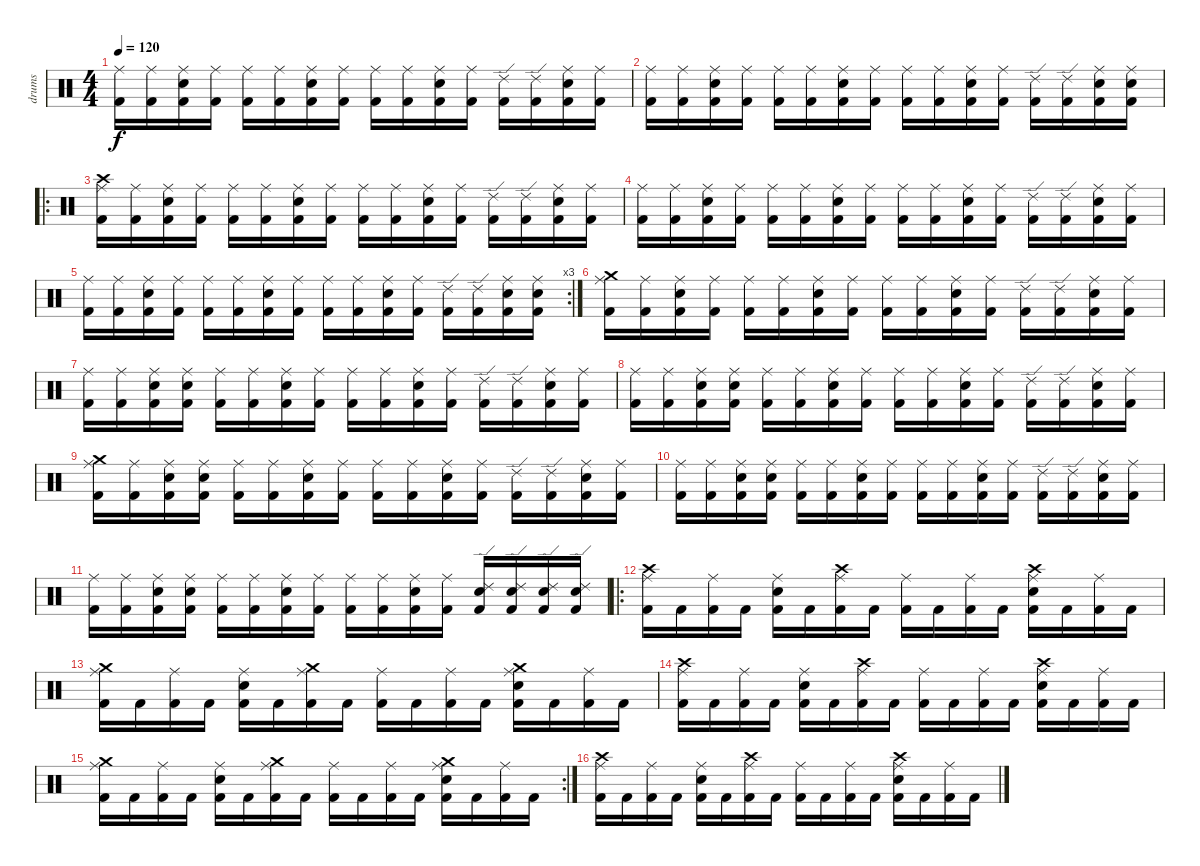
\track ("drums" "drums") {instrument percussion}
\staff {score}
\articulation defaults
\ts (4 4)
\tempo 120
\clef neutral
\ks c
("Ride (middle)" "Kick (hit) 2").16{dy f} ("Ride (middle)" "Kick (hit) 2").16 ("Ride (middle)" "Electric Snare (hit)" "Kick (hit) 2").16 ("Ride (middle)" "Kick (hit) 2").16 ("Ride (middle)" "Kick (hit) 2").16 ("Ride (middle)" "Kick (hit) 2").16 ("Ride (middle)" "Electric Snare (hit)" "Kick (hit) 2").16 ("Ride (middle)" "Kick (hit) 2").16 ("Ride (middle)" "Kick (hit) 2").16 ("Ride (middle)" "Kick (hit) 2").16 ("Ride (middle)" "Electric Snare (hit)" "Kick (hit) 2").16 ("Ride (middle)" "Kick (hit) 2").16 ("Ride (edge) 2" "Kick (hit) 2").16 ("Ride (edge) 2" "Kick (hit) 2").16 ("Ride (middle)" "Electric Snare (hit)" "Kick (hit) 2").16 ("Ride (middle)" "Kick (hit) 2").16 |
("Ride (middle)" "Kick (hit) 2").16 ("Ride (middle)" "Kick (hit) 2").16 ("Ride (middle)" "Electric Snare (hit)" "Kick (hit) 2").16 ("Ride (middle)" "Kick (hit) 2").16 ("Ride (middle)" "Kick (hit) 2").16 ("Ride (middle)" "Kick (hit) 2").16 ("Ride (middle)" "Electric Snare (hit)" "Kick (hit) 2").16 ("Ride (middle)" "Kick (hit) 2").16 ("Ride (middle)" "Kick (hit) 2").16 ("Ride (middle)" "Kick (hit) 2").16 ("Ride (middle)" "Electric Snare (hit)" "Kick (hit) 2").16 ("Ride (middle)" "Kick (hit) 2").16 ("Ride (edge) 2" "Kick (hit) 2").16 ("Ride (edge) 2" "Kick (hit) 2").16 ("Ride (middle)" "Electric Snare (hit)" "Kick (hit) 2").16 ("Ride (middle)" "Electric Snare (hit)" "Kick (hit) 2").16 |
\ro
("Crash high (hit)" "Ride (middle)" "Kick (hit) 2").16 ("Ride (middle)" "Kick (hit) 2").16 ("Ride (middle)" "Electric Snare (hit)" "Kick (hit) 2").16 ("Ride (middle)" "Kick (hit) 2").16 ("Ride (middle)" "Kick (hit) 2").16 ("Ride (middle)" "Kick (hit) 2").16 ("Ride (middle)" "Electric Snare (hit)" "Kick (hit) 2").16 ("Ride (middle)" "Kick (hit) 2").16 ("Ride (middle)" "Kick (hit) 2").16 ("Ride (middle)" "Kick (hit) 2").16 ("Ride (middle)" "Electric Snare (hit)" "Kick (hit) 2").16 ("Ride (middle)" "Kick (hit) 2").16 ("Ride (edge) 2" "Kick (hit) 2").16 ("Ride (edge) 2" "Kick (hit) 2").16 ("Ride (middle)" "Electric Snare (hit)" "Kick (hit) 2").16 ("Ride (middle)" "Kick (hit) 2").16 |
("Ride (middle)" "Kick (hit) 2").16 ("Ride (middle)" "Kick (hit) 2").16 ("Ride (middle)" "Electric Snare (hit)" "Kick (hit) 2").16 ("Ride (middle)" "Kick (hit) 2").16 ("Ride (middle)" "Kick (hit) 2").16 ("Ride (middle)" "Kick (hit) 2").16 ("Ride (middle)" "Electric Snare (hit)" "Kick (hit) 2").16 ("Ride (middle)" "Kick (hit) 2").16 ("Ride (middle)" "Kick (hit) 2").16 ("Ride (middle)" "Kick (hit) 2").16 ("Ride (middle)" "Electric Snare (hit)" "Kick (hit) 2").16 ("Ride (middle)" "Kick (hit) 2").16 ("Ride (edge) 2" "Kick (hit) 2").16 ("Ride (edge) 2" "Kick (hit) 2").16 ("Ride (middle)" "Electric Snare (hit)" "Kick (hit) 2").16 ("Ride (middle)" "Kick (hit) 2").16 |
\rc 3
("Ride (middle)" "Kick (hit) 2").16 ("Ride (middle)" "Kick (hit) 2").16 ("Ride (middle)" "Electric Snare (hit)" "Kick (hit) 2").16 ("Ride (middle)" "Kick (hit) 2").16 ("Ride (middle)" "Kick (hit) 2").16 ("Ride (middle)" "Kick (hit) 2").16 ("Ride (middle)" "Electric Snare (hit)" "Kick (hit) 2").16 ("Ride (middle)" "Kick (hit) 2").16 ("Ride (middle)" "Kick (hit) 2").16 ("Ride (middle)" "Kick (hit) 2").16 ("Ride (middle)" "Electric Snare (hit)" "Kick (hit) 2").16 ("Ride (middle)" "Kick (hit) 2").16 ("Ride (edge) 2" "Kick (hit) 2").16 ("Ride (edge) 2" "Kick (hit) 2").16 ("Ride (middle)" "Electric Snare (hit)" "Kick (hit) 2").16 ("Ride (middle)" "Electric Snare (hit)" "Kick (hit) 2").16 |
("Crash medium (hit)" "Ride (middle)" "Kick (hit) 2").16 ("Ride (middle)" "Kick (hit) 2").16 ("Ride (middle)" "Electric Snare (hit)" "Kick (hit) 2").16 ("Ride (middle)" "Kick (hit) 2").16 ("Ride (middle)" "Kick (hit) 2").16 ("Ride (middle)" "Kick (hit) 2").16 ("Ride (middle)" "Electric Snare (hit)" "Kick (hit) 2").16 ("Ride (middle)" "Kick (hit) 2").16 ("Ride (middle)" "Kick (hit) 2").16 ("Ride (middle)" "Kick (hit) 2").16 ("Ride (middle)" "Electric Snare (hit)" "Kick (hit) 2").16 ("Ride (middle)" "Kick (hit) 2").16 ("Ride (edge) 2" "Kick (hit) 2").16 ("Ride (edge) 2" "Kick (hit) 2").16 ("Ride (middle)" "Electric Snare (hit)" "Kick (hit) 2").16 ("Ride (middle)" "Kick (hit) 2").16 |
("Ride (middle)" "Kick (hit) 2").16 ("Ride (middle)" "Kick (hit) 2").16 ("Ride (middle)" "Electric Snare (hit)" "Kick (hit) 2").16 ("Ride (middle)" "Electric Snare (hit)" "Kick (hit) 2").16 ("Ride (middle)" "Kick (hit) 2").16 ("Ride (middle)" "Kick (hit) 2").16 ("Ride (middle)" "Electric Snare (hit)" "Kick (hit) 2").16 ("Ride (middle)" "Kick (hit) 2").16 ("Ride (middle)" "Kick (hit) 2").16 ("Ride (middle)" "Kick (hit) 2").16 ("Ride (middle)" "Electric Snare (hit)" "Kick (hit) 2").16 ("Ride (middle)" "Kick (hit) 2").16 ("Ride (edge) 2" "Kick (hit) 2").16 ("Ride (edge) 2" "Kick (hit) 2").16 ("Ride (middle)" "Electric Snare (hit)" "Kick (hit) 2").16 ("Ride (middle)" "Kick (hit) 2").16 |
("Ride (middle)" "Kick (hit) 2").16 ("Ride (middle)" "Kick (hit) 2").16 ("Ride (middle)" "Electric Snare (hit)" "Kick (hit) 2").16 ("Ride (middle)" "Electric Snare (hit)" "Kick (hit) 2").16 ("Ride (middle)" "Kick (hit) 2").16 ("Ride (middle)" "Kick (hit) 2").16 ("Ride (middle)" "Electric Snare (hit)" "Kick (hit) 2").16 ("Ride (middle)" "Kick (hit) 2").16 ("Ride (middle)" "Kick (hit) 2").16 ("Ride (middle)" "Kick (hit) 2").16 ("Ride (middle)" "Electric Snare (hit)" "Kick (hit) 2").16 ("Ride (middle)" "Kick (hit) 2").16 ("Ride (edge) 2" "Kick (hit) 2").16 ("Ride (edge) 2" "Kick (hit) 2").16 ("Ride (middle)" "Electric Snare (hit)" "Kick (hit) 2").16 ("Ride (middle)" "Kick (hit) 2").16 |
("Crash medium (hit)" "Ride (middle)" "Kick (hit) 2").16 ("Ride (middle)" "Kick (hit) 2").16 ("Ride (middle)" "Electric Snare (hit)" "Kick (hit) 2").16 ("Ride (middle)" "Electric Snare (hit)" "Kick (hit) 2").16 ("Ride (middle)" "Kick (hit) 2").16 ("Ride (middle)" "Kick (hit) 2").16 ("Ride (middle)" "Electric Snare (hit)" "Kick (hit) 2").16 ("Ride (middle)" "Kick (hit) 2").16 ("Ride (middle)" "Kick (hit) 2").16 ("Ride (middle)" "Kick (hit) 2").16 ("Ride (middle)" "Electric Snare (hit)" "Kick (hit) 2").16 ("Ride (middle)" "Kick (hit) 2").16 ("Ride (edge) 2" "Kick (hit) 2").16 ("Ride (edge) 2" "Kick (hit) 2").16 ("Ride (middle)" "Electric Snare (hit)" "Kick (hit) 2").16 ("Ride (middle)" "Kick (hit) 2").16 |
("Ride (middle)" "Kick (hit) 2").16 ("Ride (middle)" "Kick (hit) 2").16 ("Ride (middle)" "Electric Snare (hit)" "Kick (hit) 2").16 ("Ride (middle)" "Electric Snare (hit)" "Kick (hit) 2").16 ("Ride (middle)" "Kick (hit) 2").16 ("Ride (middle)" "Kick (hit) 2").16 ("Ride (middle)" "Electric Snare (hit)" "Kick (hit) 2").16 ("Ride (middle)" "Kick (hit) 2").16 ("Ride (middle)" "Kick (hit) 2").16 ("Ride (middle)" "Kick (hit) 2").16 ("Ride (middle)" "Electric Snare (hit)" "Kick (hit) 2").16 ("Ride (middle)" "Kick (hit) 2").16 ("Ride (edge) 2" "Kick (hit) 2").16 ("Ride (edge) 2" "Kick (hit) 2").16 ("Ride (middle)" "Electric Snare (hit)" "Kick (hit) 2").16 ("Ride (middle)" "Kick (hit) 2").16 |
("Ride (middle)" "Kick (hit) 2").16 ("Ride (middle)" "Kick (hit) 2").16 ("Ride (middle)" "Electric Snare (hit)" "Kick (hit) 2").16 ("Ride (middle)" "Electric Snare (hit)" "Kick (hit) 2").16 ("Ride (middle)" "Kick (hit) 2").16 ("Ride (middle)" "Kick (hit) 2").16 ("Ride (middle)" "Electric Snare (hit)" "Kick (hit) 2").16 ("Ride (middle)" "Kick (hit) 2").16 ("Ride (middle)" "Kick (hit) 2").16 ("Ride (middle)" "Kick (hit) 2").16 ("Ride (middle)" "Electric Snare (hit)" "Kick (hit) 2").16 ("Ride (middle)" "Kick (hit) 2").16 ("Ride (edge) 2" "Electric Snare (hit)" "Kick (hit) 2").16 ("Ride (edge) 2" "Electric Snare (hit)" "Kick (hit) 2").16 ("Ride (edge) 2" "Electric Snare (hit)" "Kick (hit) 2").16 ("Ride (edge) 2" "Electric Snare (hit)" "Kick (hit) 2").16 |
\ro
("Crash high (hit)" "Ride (middle)" "Kick (hit) 2").16 "Kick (hit) 2".16 ("Ride (middle)" "Kick (hit) 2").16 "Kick (hit) 2".16 ("Ride (middle)" "Electric Snare (hit)" "Kick (hit) 2").16 "Kick (hit) 2".16 ("Crash high (hit)" "Ride (middle)" "Kick (hit) 2").16 "Kick (hit) 2".16 ("Ride (middle)" "Kick (hit) 2").16 "Kick (hit) 2".16 ("Ride (middle)" "Kick (hit) 2").16 "Kick (hit) 2".16 ("Crash high (hit)" "Ride (middle)" "Electric Snare (hit)" "Kick (hit) 2").16 "Kick (hit) 2".16 ("Ride (middle)" "Kick (hit) 2").16 "Kick (hit) 2".16 |
("Crash medium (hit)" "Ride (middle)" "Kick (hit) 2").16 "Kick (hit) 2".16 ("Ride (middle)" "Kick (hit) 2").16 "Kick (hit) 2".16 ("Ride (middle)" "Electric Snare (hit)" "Kick (hit) 2").16 "Kick (hit) 2".16 ("Crash medium (hit)" "Ride (middle)" "Kick (hit) 2").16 "Kick (hit) 2".16 ("Ride (middle)" "Kick (hit) 2").16 "Kick (hit) 2".16 ("Ride (middle)" "Kick (hit) 2").16 "Kick (hit) 2".16 ("Crash medium (hit)" "Ride (middle)" "Electric Snare (hit)" "Kick (hit) 2").16 "Kick (hit) 2".16 ("Ride (middle)" "Kick (hit) 2").16 "Kick (hit) 2".16 |
("Crash high (hit)" "Ride (middle)" "Kick (hit) 2").16 "Kick (hit) 2".16 ("Ride (middle)" "Kick (hit) 2").16 "Kick (hit) 2".16 ("Ride (middle)" "Electric Snare (hit)" "Kick (hit) 2").16 "Kick (hit) 2".16 ("Crash high (hit)" "Ride (middle)" "Kick (hit) 2").16 "Kick (hit) 2".16 ("Ride (middle)" "Kick (hit) 2").16 "Kick (hit) 2".16 ("Ride (middle)" "Kick (hit) 2").16 "Kick (hit) 2".16 ("Crash high (hit)" "Ride (middle)" "Electric Snare (hit)" "Kick (hit) 2").16 "Kick (hit) 2".16 ("Ride (middle)" "Kick (hit) 2").16 "Kick (hit) 2".16 |
\rc 2
("Crash medium (hit)" "Ride (middle)" "Kick (hit) 2").16 "Kick (hit) 2".16 ("Ride (middle)" "Kick (hit) 2").16 "Kick (hit) 2".16 ("Ride (middle)" "Electric Snare (hit)" "Kick (hit) 2").16 "Kick (hit) 2".16 ("Crash medium (hit)" "Ride (middle)" "Kick (hit) 2").16 "Kick (hit) 2".16 ("Ride (middle)" "Kick (hit) 2").16 "Kick (hit) 2".16 ("Ride (middle)" "Kick (hit) 2").16 "Kick (hit) 2".16 ("Crash medium (hit)" "Ride (middle)" "Electric Snare (hit)" "Kick (hit) 2").16 "Kick (hit) 2".16 ("Ride (middle)" "Kick (hit) 2").16 "Kick (hit) 2".16 |
("Crash high (hit)" "Ride (middle)" "Kick (hit) 2").16 "Kick (hit) 2".16 ("Ride (middle)" "Kick (hit) 2").16 "Kick (hit) 2".16 ("Ride (middle)" "Electric Snare (hit)" "Kick (hit) 2").16 "Kick (hit) 2".16 ("Crash high (hit)" "Ride (middle)" "Kick (hit) 2").16 "Kick (hit) 2".16 ("Ride (middle)" "Kick (hit) 2").16 "Kick (hit) 2".16 ("Ride (middle)" "Kick (hit) 2").16 "Kick (hit) 2".16 ("Crash high (hit)" "Ride (middle)" "Electric Snare (hit)" "Kick (hit) 2").16 "Kick (hit) 2".16 ("Ride (middle)" "Kick (hit) 2").16 "Kick (hit) 2".16
